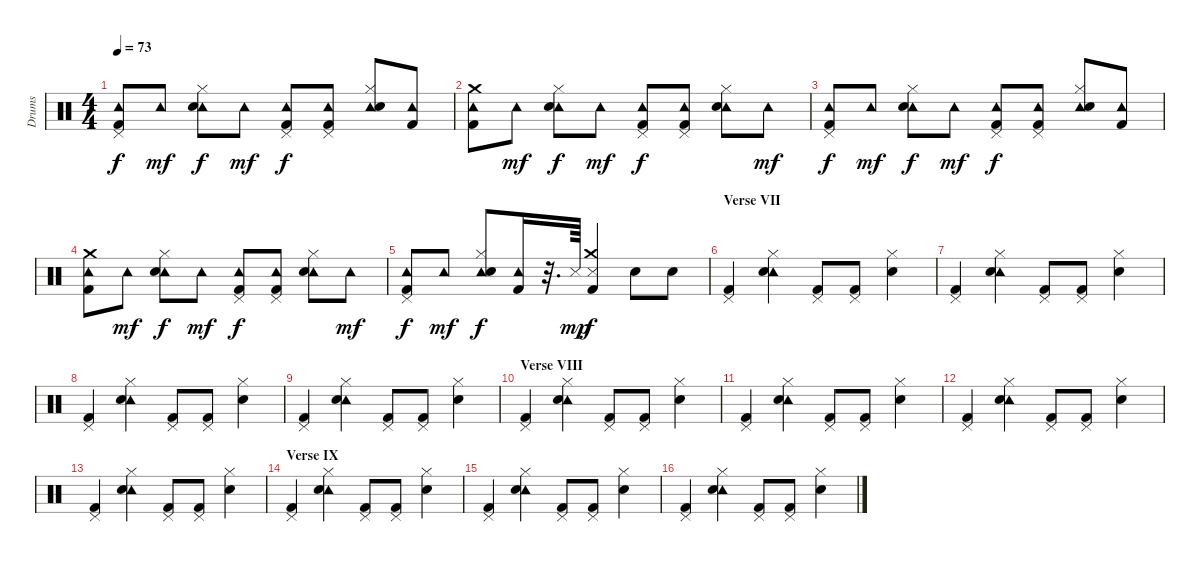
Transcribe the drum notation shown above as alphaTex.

\track ("Drums" "Drums") {instrument percussion}
\staff {score}
\articulation defaults
\ts (4 4)
\tempo 73
\clef neutral
\ks c
("Pedal Hi-Hat (hit)" "Tambourine (hit)" "Kick (hit) 2").8{dy f} "Tambourine (hit)".8{dy mf} ("Hi-Hat (closed)" "Tambourine (hit)" "Snare (hit) 2").8{dy f} "Tambourine (hit)".8{dy mf} ("Pedal Hi-Hat (hit)" "Tambourine (hit)" "Kick (hit) 2").8{dy f} ("Pedal Hi-Hat (hit)" "Tambourine (hit)" "Kick (hit) 2").8 ("Hi-Hat (closed)" "Tambourine (hit)" "Snare (hit) 2").8 ("Tambourine (hit)" "Kick (hit) 2").8 |
("Crash medium (hit)" "Tambourine (hit)" "Kick (hit) 2").8 "Tambourine (hit)".8{dy mf} ("Hi-Hat (closed)" "Tambourine (hit)" "Snare (hit) 2").8{dy f} "Tambourine (hit)".8{dy mf} ("Pedal Hi-Hat (hit)" "Tambourine (hit)" "Kick (hit) 2").8{dy f} ("Pedal Hi-Hat (hit)" "Tambourine (hit)" "Kick (hit) 2").8 ("Hi-Hat (closed)" "Tambourine (hit)" "Snare (hit) 2").8 "Tambourine (hit)".8{dy mf} |
("Pedal Hi-Hat (hit)" "Tambourine (hit)" "Kick (hit) 2").8{dy f} "Tambourine (hit)".8{dy mf} ("Hi-Hat (closed)" "Tambourine (hit)" "Snare (hit) 2").8{dy f} "Tambourine (hit)".8{dy mf} ("Pedal Hi-Hat (hit)" "Tambourine (hit)" "Kick (hit) 2").8{dy f} ("Pedal Hi-Hat (hit)" "Tambourine (hit)" "Kick (hit) 2").8 ("Hi-Hat (closed)" "Tambourine (hit)" "Snare (hit) 2").8 ("Tambourine (hit)" "Kick (hit) 2").8 |
("Crash medium (hit)" "Tambourine (hit)" "Kick (hit) 2").8 "Tambourine (hit)".8{dy mf} ("Hi-Hat (closed)" "Tambourine (hit)" "Snare (hit) 2").8{dy f} "Tambourine (hit)".8{dy mf} ("Pedal Hi-Hat (hit)" "Tambourine (hit)" "Kick (hit) 2").8{dy f} ("Pedal Hi-Hat (hit)" "Tambourine (hit)" "Kick (hit) 2").8 ("Hi-Hat (closed)" "Tambourine (hit)" "Snare (hit) 2").8 "Tambourine (hit)".8{dy mf} |
("Pedal Hi-Hat (hit)" "Tambourine (hit)" "Kick (hit) 2").8{dy f} "Tambourine (hit)".8{dy mf} ("Hi-Hat (closed)" "Tambourine (hit)" "Snare (hit) 2").8{dy f} ("Tambourine (hit)" "Kick (hit) 2").16 r.32{d} "Snare (side stick) 3".64{dy mp} ("Crash medium (hit)" "Snare (side stick) 3" "Kick (hit) 2").4{dy f} "Snare (hit) 2".8 "Snare (hit) 2".8 |
\section ("" "Verse VII")
("Pedal Hi-Hat (hit)" "Kick (hit) 2").4 ("Hi-Hat (closed)" "Tambourine (hit)" "Snare (hit) 2").4 ("Pedal Hi-Hat (hit)" "Kick (hit) 2").8 ("Pedal Hi-Hat (hit)" "Kick (hit) 2").8 ("Hi-Hat (closed)" "Snare (hit) 2").4 |
("Pedal Hi-Hat (hit)" "Kick (hit) 2").4 ("Hi-Hat (closed)" "Tambourine (hit)" "Snare (hit) 2").4 ("Pedal Hi-Hat (hit)" "Kick (hit) 2").8 ("Pedal Hi-Hat (hit)" "Kick (hit) 2").8 ("Hi-Hat (closed)" "Snare (hit) 2").4 |
("Pedal Hi-Hat (hit)" "Kick (hit) 2").4 ("Hi-Hat (closed)" "Tambourine (hit)" "Snare (hit) 2").4 ("Pedal Hi-Hat (hit)" "Kick (hit) 2").8 ("Pedal Hi-Hat (hit)" "Kick (hit) 2").8 ("Hi-Hat (closed)" "Snare (hit) 2").4 |
("Pedal Hi-Hat (hit)" "Kick (hit) 2").4 ("Hi-Hat (closed)" "Tambourine (hit)" "Snare (hit) 2").4 ("Pedal Hi-Hat (hit)" "Kick (hit) 2").8 ("Pedal Hi-Hat (hit)" "Kick (hit) 2").8 ("Hi-Hat (closed)" "Snare (hit) 2").4 |
\section ("" "Verse VIII")
("Pedal Hi-Hat (hit)" "Kick (hit) 2").4 ("Hi-Hat (closed)" "Tambourine (hit)" "Snare (hit) 2").4 ("Pedal Hi-Hat (hit)" "Kick (hit) 2").8 ("Pedal Hi-Hat (hit)" "Kick (hit) 2").8 ("Hi-Hat (closed)" "Snare (hit) 2").4 |
("Pedal Hi-Hat (hit)" "Kick (hit) 2").4 ("Hi-Hat (closed)" "Tambourine (hit)" "Snare (hit) 2").4 ("Pedal Hi-Hat (hit)" "Kick (hit) 2").8 ("Pedal Hi-Hat (hit)" "Kick (hit) 2").8 ("Hi-Hat (closed)" "Snare (hit) 2").4 |
("Pedal Hi-Hat (hit)" "Kick (hit) 2").4 ("Hi-Hat (closed)" "Tambourine (hit)" "Snare (hit) 2").4 ("Pedal Hi-Hat (hit)" "Kick (hit) 2").8 ("Pedal Hi-Hat (hit)" "Kick (hit) 2").8 ("Hi-Hat (closed)" "Snare (hit) 2").4 |
("Pedal Hi-Hat (hit)" "Kick (hit) 2").4 ("Hi-Hat (closed)" "Tambourine (hit)" "Snare (hit) 2").4 ("Pedal Hi-Hat (hit)" "Kick (hit) 2").8 ("Pedal Hi-Hat (hit)" "Kick (hit) 2").8 ("Hi-Hat (closed)" "Snare (hit) 2").4 |
\section ("" "Verse IX")
("Pedal Hi-Hat (hit)" "Kick (hit) 2").4 ("Hi-Hat (closed)" "Tambourine (hit)" "Snare (hit) 2").4 ("Pedal Hi-Hat (hit)" "Kick (hit) 2").8 ("Pedal Hi-Hat (hit)" "Kick (hit) 2").8 ("Hi-Hat (closed)" "Snare (hit) 2").4 |
("Pedal Hi-Hat (hit)" "Kick (hit) 2").4 ("Hi-Hat (closed)" "Tambourine (hit)" "Snare (hit) 2").4 ("Pedal Hi-Hat (hit)" "Kick (hit) 2").8 ("Pedal Hi-Hat (hit)" "Kick (hit) 2").8 ("Hi-Hat (closed)" "Snare (hit) 2").4 |
("Pedal Hi-Hat (hit)" "Kick (hit) 2").4 ("Hi-Hat (closed)" "Tambourine (hit)" "Snare (hit) 2").4 ("Pedal Hi-Hat (hit)" "Kick (hit) 2").8 ("Pedal Hi-Hat (hit)" "Kick (hit) 2").8 ("Hi-Hat (closed)" "Snare (hit) 2").4
